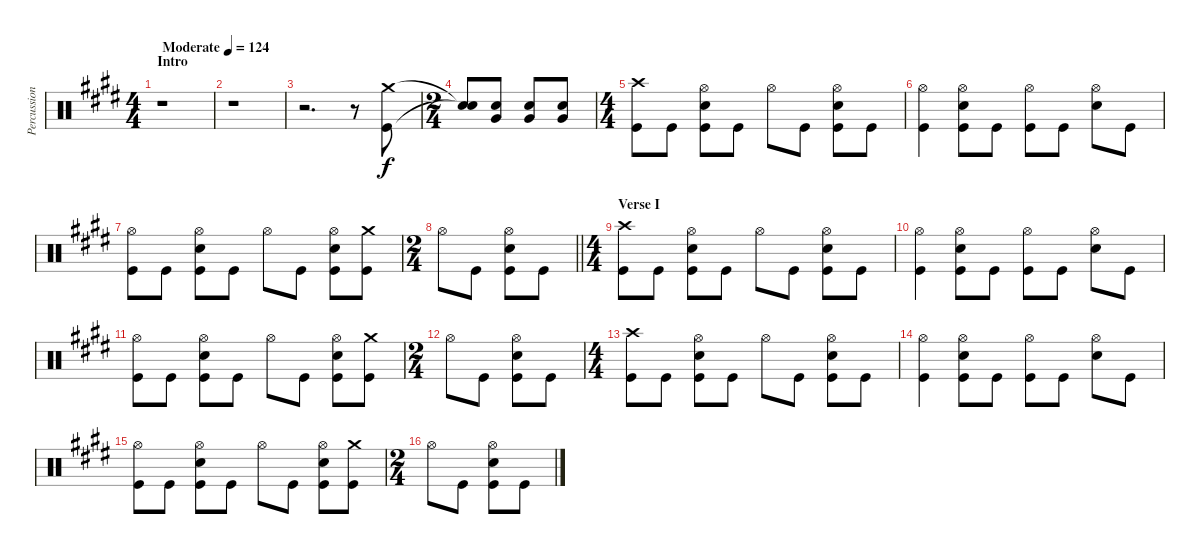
\track ("Percussion" "Percussion") {instrument percussion}
\staff {score}
\articulation defaults
\ts (4 4)
\section ("" "Intro")
\tempo (124 "Moderate")
\clef neutral
\ks e
r.1{dy f} |
r.1 |
r.2{d} r.8 ("Crash medium (hit)" "Kick (hit)").8 |
\ts (2 4)
("Snare (hit)"{t} "Snare (hit)"{t}).8 ("Very Low Tom (hit)" "Electric Snare (hit)").8 ("Very Low Tom (hit)" "Electric Snare (hit)").8 ("Very Low Tom (hit)" "Electric Snare (hit)").8 |
\ts (4 4)
("Crash high (hit)" "Kick (hit)").8 "Kick (hit)".8 ("Hi-Hat (open)" "Electric Snare (hit)" "Kick (hit)").8 "Kick (hit)".8 "Hi-Hat (open)".8 "Kick (hit)".8 ("Hi-Hat (open)" "Electric Snare (hit)" "Kick (hit)").8 "Kick (hit)".8 |
("Hi-Hat (open)" "Kick (hit)").4 ("Hi-Hat (open)" "Electric Snare (hit)" "Kick (hit)").8 "Kick (hit)".8 ("Hi-Hat (open)" "Kick (hit)").8 "Kick (hit)".8 ("Hi-Hat (open)" "Electric Snare (hit)").8 "Kick (hit)".8 |
("Hi-Hat (open)" "Kick (hit)").8 "Kick (hit)".8 ("Hi-Hat (open)" "Electric Snare (hit)" "Kick (hit)").8 "Kick (hit)".8 "Hi-Hat (open)".8 "Kick (hit)".8 ("Hi-Hat (open)" "Electric Snare (hit)" "Kick (hit)").8 ("Crash medium (hit)" "Kick (hit)").8 |
\ts (2 4)
\barLineRight lightlight "Hi-Hat (open)".8 "Kick (hit)".8
("Hi-Hat (open)" "Electric Snare (hit)" "Kick (hit)").8 "Kick (hit)".8 |
\ts (4 4)
\section ("" "Verse I")
("Crash high (hit)" "Kick (hit)").8 "Kick (hit)".8 ("Hi-Hat (open)" "Electric Snare (hit)" "Kick (hit)").8 "Kick (hit)".8 "Hi-Hat (open)".8 "Kick (hit)".8 ("Hi-Hat (open)" "Electric Snare (hit)" "Kick (hit)").8 "Kick (hit)".8 |
("Hi-Hat (open)" "Kick (hit)").4 ("Hi-Hat (open)" "Electric Snare (hit)" "Kick (hit)").8 "Kick (hit)".8 ("Hi-Hat (open)" "Kick (hit)").8 "Kick (hit)".8 ("Hi-Hat (open)" "Electric Snare (hit)").8 "Kick (hit)".8 |
("Hi-Hat (open)" "Kick (hit)").8 "Kick (hit)".8 ("Hi-Hat (open)" "Electric Snare (hit)" "Kick (hit)").8 "Kick (hit)".8 "Hi-Hat (open)".8 "Kick (hit)".8 ("Hi-Hat (open)" "Electric Snare (hit)" "Kick (hit)").8 ("Crash medium (hit)" "Kick (hit)").8 |
\ts (2 4)
"Hi-Hat (open)".8 "Kick (hit)".8 ("Hi-Hat (open)" "Electric Snare (hit)" "Kick (hit)").8 "Kick (hit)".8 |
\ts (4 4)
("Crash high (hit)" "Kick (hit)").8 "Kick (hit)".8 ("Hi-Hat (open)" "Electric Snare (hit)" "Kick (hit)").8 "Kick (hit)".8 "Hi-Hat (open)".8 "Kick (hit)".8 ("Hi-Hat (open)" "Electric Snare (hit)" "Kick (hit)").8 "Kick (hit)".8 |
("Hi-Hat (open)" "Kick (hit)").4 ("Hi-Hat (open)" "Electric Snare (hit)" "Kick (hit)").8 "Kick (hit)".8 ("Hi-Hat (open)" "Kick (hit)").8 "Kick (hit)".8 ("Hi-Hat (open)" "Electric Snare (hit)").8 "Kick (hit)".8 |
("Hi-Hat (open)" "Kick (hit)").8 "Kick (hit)".8 ("Hi-Hat (open)" "Electric Snare (hit)" "Kick (hit)").8 "Kick (hit)".8 "Hi-Hat (open)".8 "Kick (hit)".8 ("Hi-Hat (open)" "Electric Snare (hit)" "Kick (hit)").8 ("Crash medium (hit)" "Kick (hit)").8 |
\ts (2 4)
"Hi-Hat (open)".8 "Kick (hit)".8 ("Hi-Hat (open)" "Electric Snare (hit)" "Kick (hit)").8 "Kick (hit)".8
